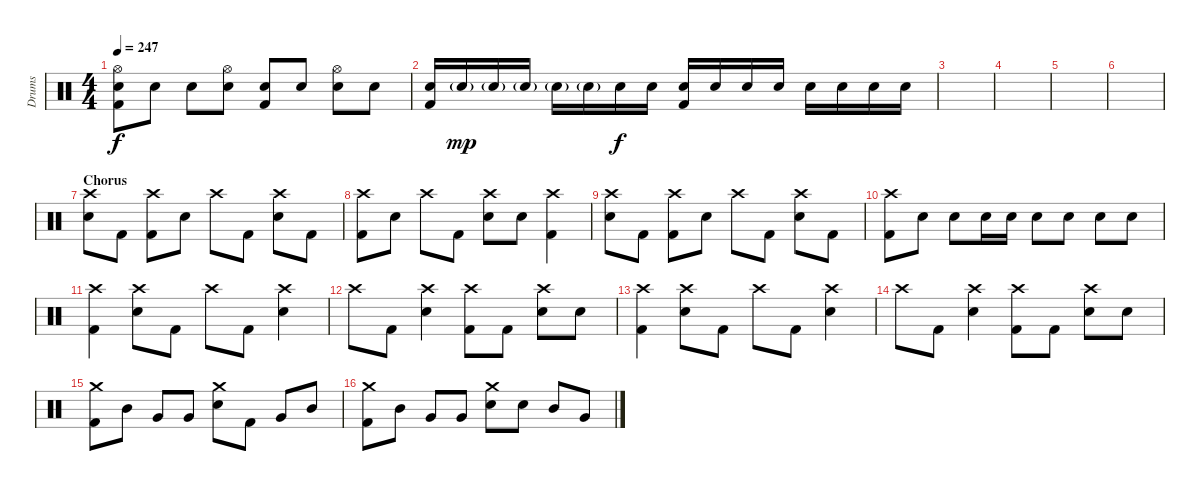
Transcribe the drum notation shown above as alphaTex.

\track ("Drums" "Drums") {instrument percussion}
\staff {score}
\articulation defaults
\ts (4 4)
\tempo 247
\clef neutral
\ks c
("Hi-Hat (open)" "Electric Snare (hit)" "Kick (hit) 2").8{dy f} "Electric Snare (hit)".8 "Electric Snare (hit)".8 ("Hi-Hat (open)" "Electric Snare (hit)").8 ("Electric Snare (hit)" "Kick (hit) 2").8 "Electric Snare (hit)".8 ("Hi-Hat (open)" "Electric Snare (hit)").8 "Electric Snare (hit)".8 |
("Electric Snare (hit)" "Kick (hit) 2").16 "Electric Snare (hit)"{g}.16{dy mp} "Electric Snare (hit)"{g}.16 "Electric Snare (hit)"{g}.16 "Electric Snare (hit)"{g}.16 "Electric Snare (hit)"{g}.16 "Electric Snare (hit)".16{dy f} "Electric Snare (hit)".16 ("Electric Snare (hit)" "Kick (hit) 2").16 "Electric Snare (hit)".16 "Electric Snare (hit)".16 "Electric Snare (hit)".16 "Electric Snare (hit)".16 "Electric Snare (hit)".16 "Electric Snare (hit)".16 "Electric Snare (hit)".16 |
|
|
|
|
\section ("" "Chorus")
("Crash high (hit)" "Electric Snare (hit)").8 "Kick (hit) 2".8 ("Crash high (hit)" "Kick (hit) 2").8 "Electric Snare (hit)".8 "Crash high (hit)".8 "Kick (hit) 2".8 ("Crash high (hit)" "Electric Snare (hit)").8 "Kick (hit) 2".8 |
("Crash high (hit)" "Kick (hit) 2").8 "Electric Snare (hit)".8 "Crash high (hit)".8 "Kick (hit) 2".8 ("Crash high (hit)" "Electric Snare (hit)").8 "Electric Snare (hit)".8 ("Crash high (hit)" "Kick (hit) 2").4 |
("Crash high (hit)" "Electric Snare (hit)").8 "Kick (hit) 2".8 ("Crash high (hit)" "Kick (hit) 2").8 "Electric Snare (hit)".8 "Crash high (hit)".8 "Kick (hit) 2".8 ("Crash high (hit)" "Electric Snare (hit)").8 "Kick (hit) 2".8 |
("Crash high (hit)" "Kick (hit) 2").8 "Electric Snare (hit)".8 "Electric Snare (hit)".8 "Electric Snare (hit)".16 "Electric Snare (hit)".16 "Electric Snare (hit)".8 "Electric Snare (hit)".8 "Electric Snare (hit)".8 "Electric Snare (hit)".8 |
("Crash high (hit)" "Kick (hit) 2").4 ("Crash high (hit)" "Electric Snare (hit)").8 "Kick (hit) 2".8 "Crash high (hit)".8 "Kick (hit) 2".8 ("Crash high (hit)" "Electric Snare (hit)").4 |
"Crash high (hit)".8 "Kick (hit) 2".8 ("Crash high (hit)" "Electric Snare (hit)").4 ("Crash high (hit)" "Kick (hit) 2").8 "Kick (hit) 2".8 ("Crash high (hit)" "Electric Snare (hit)").8 "Electric Snare (hit)".8 |
("Crash high (hit)" "Kick (hit) 2").4 ("Crash high (hit)" "Electric Snare (hit)").8 "Kick (hit) 2".8 "Crash high (hit)".8 "Kick (hit) 2".8 ("Crash high (hit)" "Electric Snare (hit)").4 |
"Crash high (hit)".8 "Kick (hit) 2".8 ("Crash high (hit)" "Electric Snare (hit)").4 ("Crash high (hit)" "Kick (hit) 2").8 "Kick (hit) 2".8 ("Crash high (hit)" "Electric Snare (hit)").8 "Electric Snare (hit)".8 |
("Crash medium (hit)" "Kick (hit) 2").8 "Mid Tom (hit)".8 "Very Low Tom (hit)".8 "Very Low Tom (hit)".8 ("Crash medium (hit)" "Electric Snare (hit)").8 "Kick (hit) 2".8 "Very Low Tom (hit)".8 "Mid Tom (hit)".8 |
("Crash medium (hit)" "Kick (hit) 2").8 "Mid Tom (hit)".8 "Very Low Tom (hit)".8 "Very Low Tom (hit)".8 ("Crash medium (hit)" "Electric Snare (hit)").8 "Electric Snare (hit)".8 "Mid Tom (hit)".8 "Very Low Tom (hit)".8
